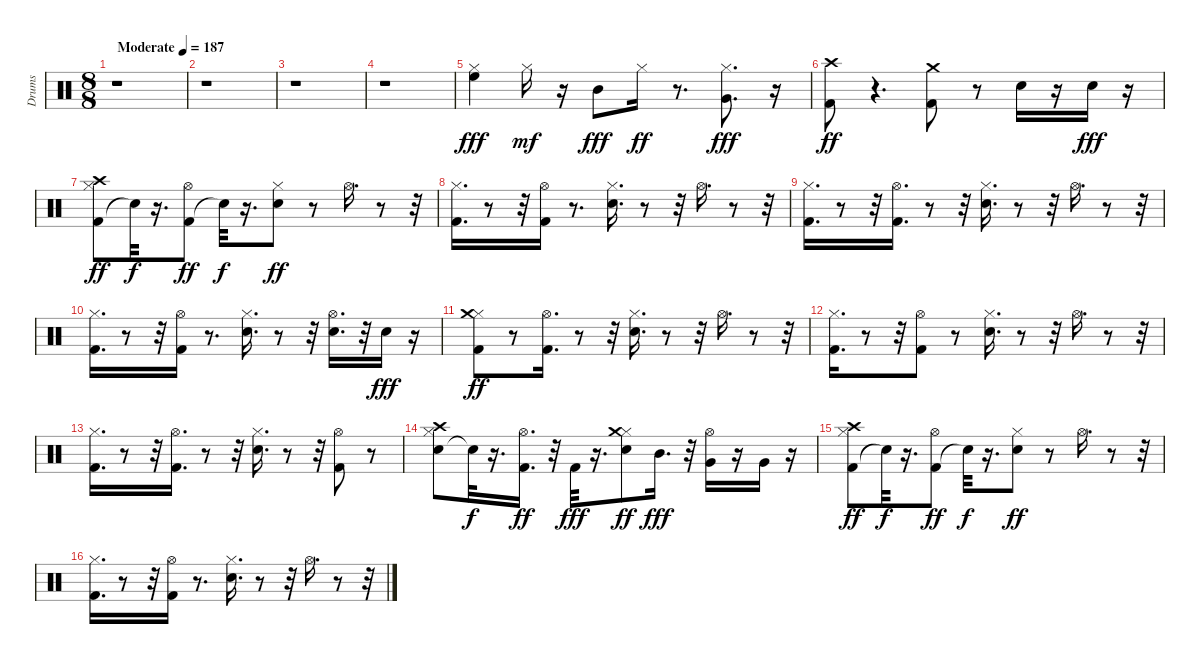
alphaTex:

\track ("Drums" "Drums") {instrument percussion}
\staff {score}
\articulation defaults
\ts (8 8)
\tempo (187 "Moderate")
\clef neutral
\ks c
r.1{dy fff} |
r.1 |
r.1 |
r.1 |
("Hi-Hat (closed)" "High Floor Tom (hit)").4 "Hi-Hat (closed)".16{dy mf} r.16 "Mid Tom (hit)".8{dy fff} "Hi-Hat (closed)".16{dy ff} r.8{d} ("Hi-Hat (closed)" "Very Low Tom (hit)").8{d dy fff} r.16 |
("Kick (hit) 2" "Crash high (hit)").8{dy ff} r.4{d} ("Kick (hit) 2" "Crash medium (hit)").8 r.8 "Snare (hit) 2".16 r.16 "Snare (hit) 2".16{dy fff} r.16 |
("Kick (hit) 2" "Hi-Hat (closed)" "Crash high (hit)").8{dy ff} "Snare (hit)"{t}.32{dy f} r.16{d} ("Kick (hit) 2" "Hi-Hat (open)").8{dy ff} "Snare (hit)"{t}.32{dy f} r.16{d} ("Snare (hit) 2" "Hi-Hat (closed)").8{dy ff} r.8 "Hi-Hat (open)".16{d} r.8 r.32 |
("Kick (hit) 2" "Hi-Hat (closed)").16{d} r.8 r.32 ("Kick (hit) 2" "Hi-Hat (open)").16 r.8{d} ("Snare (hit) 2" "Hi-Hat (closed)").16{d} r.8 r.32 "Hi-Hat (open)".16{d} r.8 r.32 |
("Kick (hit) 2" "Hi-Hat (closed)").16{d} r.8 r.32 ("Kick (hit) 2" "Hi-Hat (open)").16{d} r.8 r.32 ("Snare (hit) 2" "Hi-Hat (closed)").16{d} r.8 r.32 "Hi-Hat (open)".16{d} r.8 r.32 |
("Kick (hit) 2" "Hi-Hat (closed)").16{d} r.8 r.32 ("Kick (hit) 2" "Hi-Hat (open)").16 r.8{d} ("Snare (hit) 2" "Hi-Hat (closed)").16{d} r.8 r.32 ("Snare (hit) 2" "Hi-Hat (open)").16{d} r.32 "Snare (hit) 2".16{dy fff} r.16 |
("Kick (hit) 2" "Hi-Hat (closed)" "Crash medium (hit)").8{dy ff} r.8 ("Kick (hit) 2" "Hi-Hat (open)").16{d} r.8 r.32 ("Snare (hit) 2" "Hi-Hat (closed)").16{d} r.8 r.32 "Hi-Hat (open)".16{d} r.8 r.32 |
("Kick (hit) 2" "Hi-Hat (closed)").16{d} r.8 r.32 ("Kick (hit) 2" "Hi-Hat (open)").8 r.8 ("Snare (hit) 2" "Hi-Hat (closed)").16{d} r.8 r.32 "Hi-Hat (open)".16{d} r.8 r.32 |
("Kick (hit) 2" "Hi-Hat (closed)").16{d} r.8 r.32 ("Kick (hit) 2" "Hi-Hat (open)").16{d} r.8 r.32 ("Snare (hit) 2" "Hi-Hat (closed)").16{d} r.8 r.32 ("Kick (hit) 2" "Hi-Hat (open)").8 r.8 |
("Snare (hit) 2" "Hi-Hat (closed)" "Crash high (hit)").8 "Snare (hit)"{t}.32{dy f} r.16{d} ("Kick (hit) 2" "Hi-Hat (open)").16{d dy ff} r.32 "Kick (hit) 2".32{dy fff} r.16{d} ("Snare (hit) 2" "Hi-Hat (closed)" "Crash medium (hit)").8{dy ff} "Mid Tom (hit)".16{d dy fff} r.32 ("Hi-Hat (open)" "Very Low Tom (hit)").16 r.16 "Very Low Tom (hit)".16 r.16 |
("Kick (hit) 2" "Hi-Hat (closed)" "Crash high (hit)").8{dy ff} "Snare (hit)"{t}.32{dy f} r.16{d} ("Kick (hit) 2" "Hi-Hat (open)").8{dy ff} "Snare (hit)"{t}.32{dy f} r.16{d} ("Snare (hit) 2" "Hi-Hat (closed)").8{dy ff} r.8 "Hi-Hat (open)".16{d} r.8 r.32 |
("Kick (hit) 2" "Hi-Hat (closed)").16{d} r.8 r.32 ("Kick (hit) 2" "Hi-Hat (open)").16 r.8{d} ("Snare (hit) 2" "Hi-Hat (closed)").16{d} r.8 r.32 "Hi-Hat (open)".16{d} r.8 r.32
